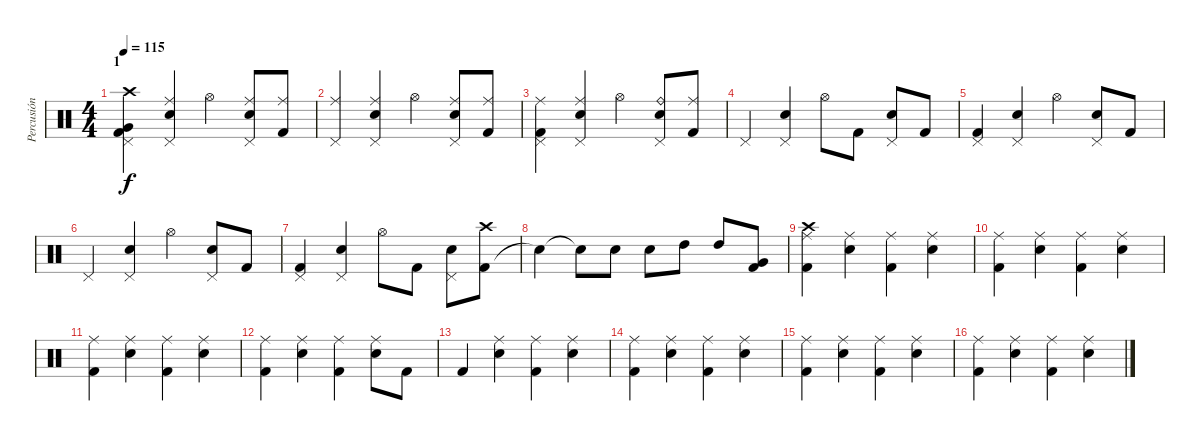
\track ("Percusión" "Percusión") {instrument percussion}
\staff {score}
\articulation defaults
\ts (4 4)
\section ("" "1")
\tempo 115
\clef neutral
\ks c
("Kick (hit) 2" "Very Low Tom (hit)" "Pedal Hi-Hat (hit)" "Crash high (hit)").4{dy f} ("Snare (hit) 2" "Pedal Hi-Hat (hit)" "Ride (middle)").4 "Hi-Hat (open)".4 ("Snare (hit) 2" "Pedal Hi-Hat (hit)" "Ride (middle)").8 ("Kick (hit) 2" "Ride (middle)").8 |
("Pedal Hi-Hat (hit)" "Ride (middle)").4 ("Snare (hit) 2" "Pedal Hi-Hat (hit)" "Ride (middle)").4 "Hi-Hat (open)".4 ("Snare (hit) 2" "Pedal Hi-Hat (hit)" "Ride (middle)").8 ("Kick (hit) 2" "Ride (middle)").8 |
("Kick (hit) 2" "Pedal Hi-Hat (hit)" "Ride (middle)").4 ("Snare (hit) 2" "Pedal Hi-Hat (hit)" "Ride (middle)").4 "Hi-Hat (open)".4 ("Snare (hit) 2" "Pedal Hi-Hat (hit)" "Ride (bell)").8 ("Kick (hit) 2" "Ride (middle)").8 |
"Pedal Hi-Hat (hit)".4 ("Snare (hit) 2" "Pedal Hi-Hat (hit)").4 "Hi-Hat (open)".8 "Kick (hit) 2".8 ("Snare (hit) 2" "Pedal Hi-Hat (hit)").8 "Kick (hit) 2".8 |
("Kick (hit) 2" "Pedal Hi-Hat (hit)").4 ("Snare (hit) 2" "Pedal Hi-Hat (hit)").4 "Hi-Hat (open)".4 ("Snare (hit) 2" "Pedal Hi-Hat (hit)").8 "Kick (hit) 2".8 |
"Pedal Hi-Hat (hit)".4 ("Snare (hit) 2" "Pedal Hi-Hat (hit)").4 "Hi-Hat (open)".4 ("Snare (hit) 2" "Pedal Hi-Hat (hit)").8 "Kick (hit) 2".8 |
("Kick (hit) 2" "Pedal Hi-Hat (hit)").4 ("Snare (hit) 2" "Pedal Hi-Hat (hit)").4 "Hi-Hat (open)".8 "Kick (hit) 2".8 ("Snare (hit) 2" "Pedal Hi-Hat (hit)").8 ("Kick (hit) 2" "Crash high (hit)").8 |
"Snare (hit)"{t}.4 "Snare (hit)"{t}.8 "Snare (hit) 2".8 "Snare (hit) 2".8 "High Tom (hit)".8 "High Tom (hit)".8 ("Very Low Tom (hit)" "Kick (hit) 2").8 |
("Kick (hit) 2" "Ride (middle)" "Crash high (hit)").4 ("Snare (hit) 2" "Ride (middle)").4 ("Kick (hit) 2" "Ride (middle)").4 ("Snare (hit) 2" "Ride (middle)").4 |
("Kick (hit) 2" "Ride (middle)").4 ("Snare (hit) 2" "Ride (middle)").4 ("Kick (hit) 2" "Ride (middle)").4 ("Snare (hit) 2" "Ride (middle)").4 |
("Kick (hit) 2" "Ride (middle)").4 ("Snare (hit) 2" "Ride (middle)").4 ("Kick (hit) 2" "Ride (middle)").4 ("Snare (hit) 2" "Ride (middle)").4 |
("Kick (hit) 2" "Ride (middle)").4 ("Snare (hit) 2" "Ride (middle)").4 ("Kick (hit) 2" "Ride (middle)").4 ("Snare (hit) 2" "Ride (middle)").8 "Kick (hit) 2".8 |
"Kick (hit) 2".4 ("Snare (hit) 2" "Ride (middle)").4 ("Kick (hit) 2" "Ride (middle)").4 ("Snare (hit) 2" "Ride (middle)").4 |
("Kick (hit) 2" "Ride (middle)").4 ("Snare (hit) 2" "Ride (middle)").4 ("Kick (hit) 2" "Ride (middle)").4 ("Snare (hit) 2" "Ride (middle)").4 |
("Kick (hit) 2" "Ride (middle)").4 ("Snare (hit) 2" "Ride (middle)").4 ("Kick (hit) 2" "Ride (middle)").4 ("Snare (hit) 2" "Ride (middle)").4 |
("Kick (hit) 2" "Ride (middle)").4 ("Snare (hit) 2" "Ride (middle)").4 ("Kick (hit) 2" "Ride (middle)").4 ("Snare (hit) 2" "Ride (middle)").4
